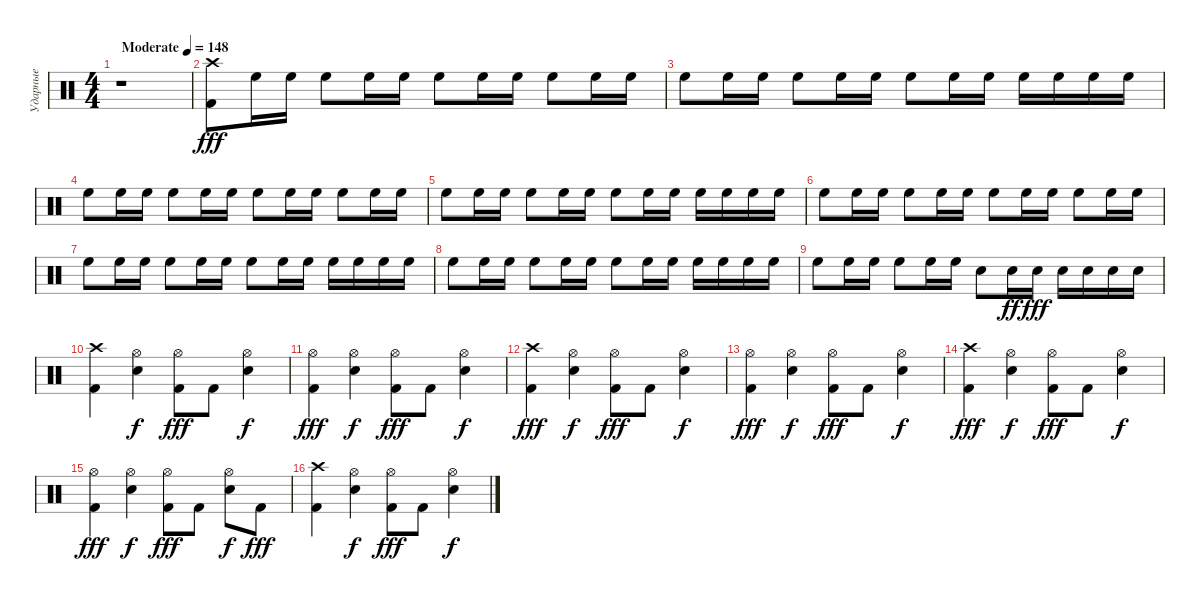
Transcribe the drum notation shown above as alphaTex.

\track ("Ударные" "Ударные") {instrument percussion}
\staff {score}
\articulation defaults
\ts (4 4)
\tempo (148 "Moderate")
\clef neutral
\ks c
r.1{dy fff} |
("Kick (hit) 2" "Crash high (hit)").8 "High Floor Tom (hit)".16 "High Floor Tom (hit)".16 "High Floor Tom (hit)".8 "High Floor Tom (hit)".16 "High Floor Tom (hit)".16 "High Floor Tom (hit)".8 "High Floor Tom (hit)".16 "High Floor Tom (hit)".16 "High Floor Tom (hit)".8 "High Floor Tom (hit)".16 "High Floor Tom (hit)".16 |
"High Floor Tom (hit)".8 "High Floor Tom (hit)".16 "High Floor Tom (hit)".16 "High Floor Tom (hit)".8 "High Floor Tom (hit)".16 "High Floor Tom (hit)".16 "High Floor Tom (hit)".8 "High Floor Tom (hit)".16 "High Floor Tom (hit)".16 "High Floor Tom (hit)".16 "High Floor Tom (hit)".16 "High Floor Tom (hit)".16 "High Floor Tom (hit)".16 |
"High Floor Tom (hit)".8 "High Floor Tom (hit)".16 "High Floor Tom (hit)".16 "High Floor Tom (hit)".8 "High Floor Tom (hit)".16 "High Floor Tom (hit)".16 "High Floor Tom (hit)".8 "High Floor Tom (hit)".16 "High Floor Tom (hit)".16 "High Floor Tom (hit)".8 "High Floor Tom (hit)".16 "High Floor Tom (hit)".16 |
"High Floor Tom (hit)".8 "High Floor Tom (hit)".16 "High Floor Tom (hit)".16 "High Floor Tom (hit)".8 "High Floor Tom (hit)".16 "High Floor Tom (hit)".16 "High Floor Tom (hit)".8 "High Floor Tom (hit)".16 "High Floor Tom (hit)".16 "High Floor Tom (hit)".16 "High Floor Tom (hit)".16 "High Floor Tom (hit)".16 "High Floor Tom (hit)".16 |
"High Floor Tom (hit)".8 "High Floor Tom (hit)".16 "High Floor Tom (hit)".16 "High Floor Tom (hit)".8 "High Floor Tom (hit)".16 "High Floor Tom (hit)".16 "High Floor Tom (hit)".8 "High Floor Tom (hit)".16 "High Floor Tom (hit)".16 "High Floor Tom (hit)".8 "High Floor Tom (hit)".16 "High Floor Tom (hit)".16 |
"High Floor Tom (hit)".8 "High Floor Tom (hit)".16 "High Floor Tom (hit)".16 "High Floor Tom (hit)".8 "High Floor Tom (hit)".16 "High Floor Tom (hit)".16 "High Floor Tom (hit)".8 "High Floor Tom (hit)".16 "High Floor Tom (hit)".16 "High Floor Tom (hit)".16 "High Floor Tom (hit)".16 "High Floor Tom (hit)".16 "High Floor Tom (hit)".16 |
"High Floor Tom (hit)".8 "High Floor Tom (hit)".16 "High Floor Tom (hit)".16 "High Floor Tom (hit)".8 "High Floor Tom (hit)".16 "High Floor Tom (hit)".16 "High Floor Tom (hit)".8 "High Floor Tom (hit)".16 "High Floor Tom (hit)".16 "High Floor Tom (hit)".16 "High Floor Tom (hit)".16 "High Floor Tom (hit)".16 "High Floor Tom (hit)".16 |
"High Floor Tom (hit)".8 "High Floor Tom (hit)".16 "High Floor Tom (hit)".16 "High Floor Tom (hit)".8 "High Floor Tom (hit)".16 "High Floor Tom (hit)".16 "Snare (hit) 2".8 "Snare (hit) 2".16{dy ff} "Snare (hit) 2".16{dy fff} "Snare (hit) 2".16 "Snare (hit) 2".16 "Snare (hit) 2".16 "Snare (hit) 2".16 |
("Kick (hit) 2" "Crash high (hit)").4 ("Snare (hit) 2" "Hi-Hat (open)").4{dy f} ("Kick (hit) 2" "Hi-Hat (open)").8{dy fff} "Kick (hit) 2".8 ("Snare (hit) 2" "Hi-Hat (open)").4{dy f} |
("Kick (hit) 2" "Hi-Hat (open)").4{dy fff} ("Snare (hit) 2" "Hi-Hat (open)").4{dy f} ("Kick (hit) 2" "Hi-Hat (open)").8{dy fff} "Kick (hit) 2".8 ("Snare (hit) 2" "Hi-Hat (open)").4{dy f} |
("Kick (hit) 2" "Crash high (hit)").4{dy fff} ("Snare (hit) 2" "Hi-Hat (open)").4{dy f} ("Kick (hit) 2" "Hi-Hat (open)").8{dy fff} "Kick (hit) 2".8 ("Snare (hit) 2" "Hi-Hat (open)").4{dy f} |
("Kick (hit) 2" "Hi-Hat (open)").4{dy fff} ("Snare (hit) 2" "Hi-Hat (open)").4{dy f} ("Kick (hit) 2" "Hi-Hat (open)").8{dy fff} "Kick (hit) 2".8 ("Snare (hit) 2" "Hi-Hat (open)").4{dy f} |
("Kick (hit) 2" "Crash high (hit)").4{dy fff} ("Snare (hit) 2" "Hi-Hat (open)").4{dy f} ("Kick (hit) 2" "Hi-Hat (open)").8{dy fff} "Kick (hit) 2".8 ("Snare (hit) 2" "Hi-Hat (open)").4{dy f} |
("Kick (hit) 2" "Hi-Hat (open)").4{dy fff} ("Snare (hit) 2" "Hi-Hat (open)").4{dy f} ("Kick (hit) 2" "Hi-Hat (open)").8{dy fff} "Kick (hit) 2".8 ("Snare (hit) 2" "Hi-Hat (open)").8{dy f} "Kick (hit) 2".8{dy fff} |
("Kick (hit) 2" "Crash high (hit)").4 ("Snare (hit) 2" "Hi-Hat (open)").4{dy f} ("Kick (hit) 2" "Hi-Hat (open)").8{dy fff} "Kick (hit) 2".8 ("Snare (hit) 2" "Hi-Hat (open)").4{dy f}
